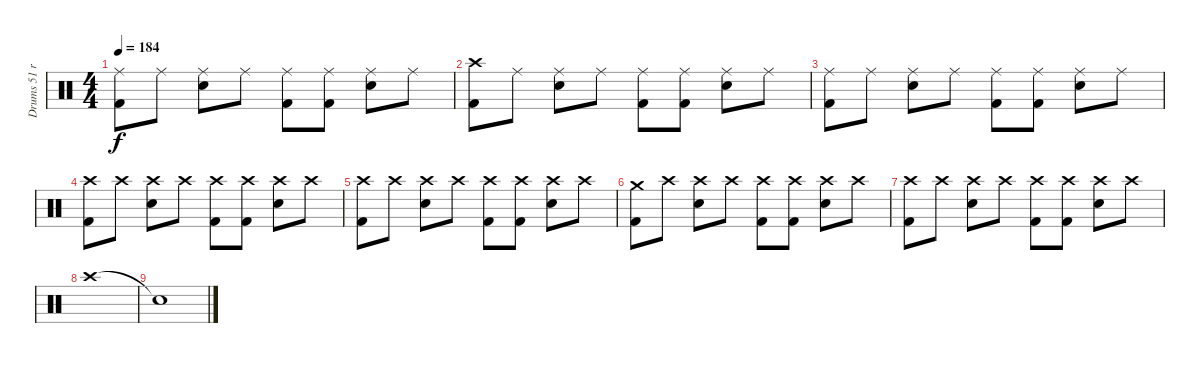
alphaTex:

\track ("Drums 51 ride" "Drums 51 r") {mute instrument percussion}
\staff {score}
\articulation defaults
\ts (4 4)
\tempo 184
\clef neutral
\ks c
("Ride (middle)" "Kick (hit) 2").8{dy f} "Ride (middle)".8 ("Ride (middle)" "Snare (hit) 2").8 "Ride (middle)".8 ("Ride (middle)" "Kick (hit) 2").8 ("Ride (middle)" "Kick (hit) 2").8 ("Ride (middle)" "Snare (hit) 2").8 "Ride (middle)".8 |
("Crash high (hit)" "Kick (hit) 2").8 "Ride (middle)".8 ("Ride (middle)" "Snare (hit) 2").8 "Ride (middle)".8 ("Ride (middle)" "Kick (hit) 2").8 ("Ride (middle)" "Kick (hit) 2").8 ("Ride (middle)" "Snare (hit) 2").8 "Ride (middle)".8 |
("Ride (middle)" "Kick (hit) 2").8 "Ride (middle)".8 ("Ride (middle)" "Snare (hit) 2").8 "Ride (middle)".8 ("Ride (middle)" "Kick (hit) 2").8 ("Ride (middle)" "Kick (hit) 2").8 ("Ride (middle)" "Snare (hit) 2").8 "Ride (middle)".8 |
("Crash high (hit)" "Kick (hit) 2").8 "Crash high (hit)".8 ("Crash high (hit)" "Snare (hit) 2").8 "Crash high (hit)".8 ("Crash high (hit)" "Kick (hit) 2").8 ("Crash high (hit)" "Kick (hit) 2").8 ("Crash high (hit)" "Snare (hit) 2").8 "Crash high (hit)".8 |
("Crash high (hit)" "Kick (hit) 2").8 "Crash high (hit)".8 ("Crash high (hit)" "Snare (hit) 2").8 "Crash high (hit)".8 ("Crash high (hit)" "Kick (hit) 2").8 ("Crash high (hit)" "Kick (hit) 2").8 ("Crash high (hit)" "Snare (hit) 2").8 "Crash high (hit)".8 |
("Crash medium (hit)" "Kick (hit) 2").8 "Crash high (hit)".8 ("Crash high (hit)" "Snare (hit) 2").8 "Crash high (hit)".8 ("Crash high (hit)" "Kick (hit) 2").8 ("Crash high (hit)" "Kick (hit) 2").8 ("Crash high (hit)" "Snare (hit) 2").8 "Crash high (hit)".8 |
("Crash high (hit)" "Kick (hit) 2").8 "Crash high (hit)".8 ("Crash high (hit)" "Snare (hit) 2").8 "Crash high (hit)".8 ("Crash high (hit)" "Kick (hit) 2").8 ("Crash high (hit)" "Kick (hit) 2").8 ("Crash high (hit)" "Snare (hit) 2").8 "Crash high (hit)".8 |
"Crash high (hit)".1 |
"Snare (hit)"{t}.1
